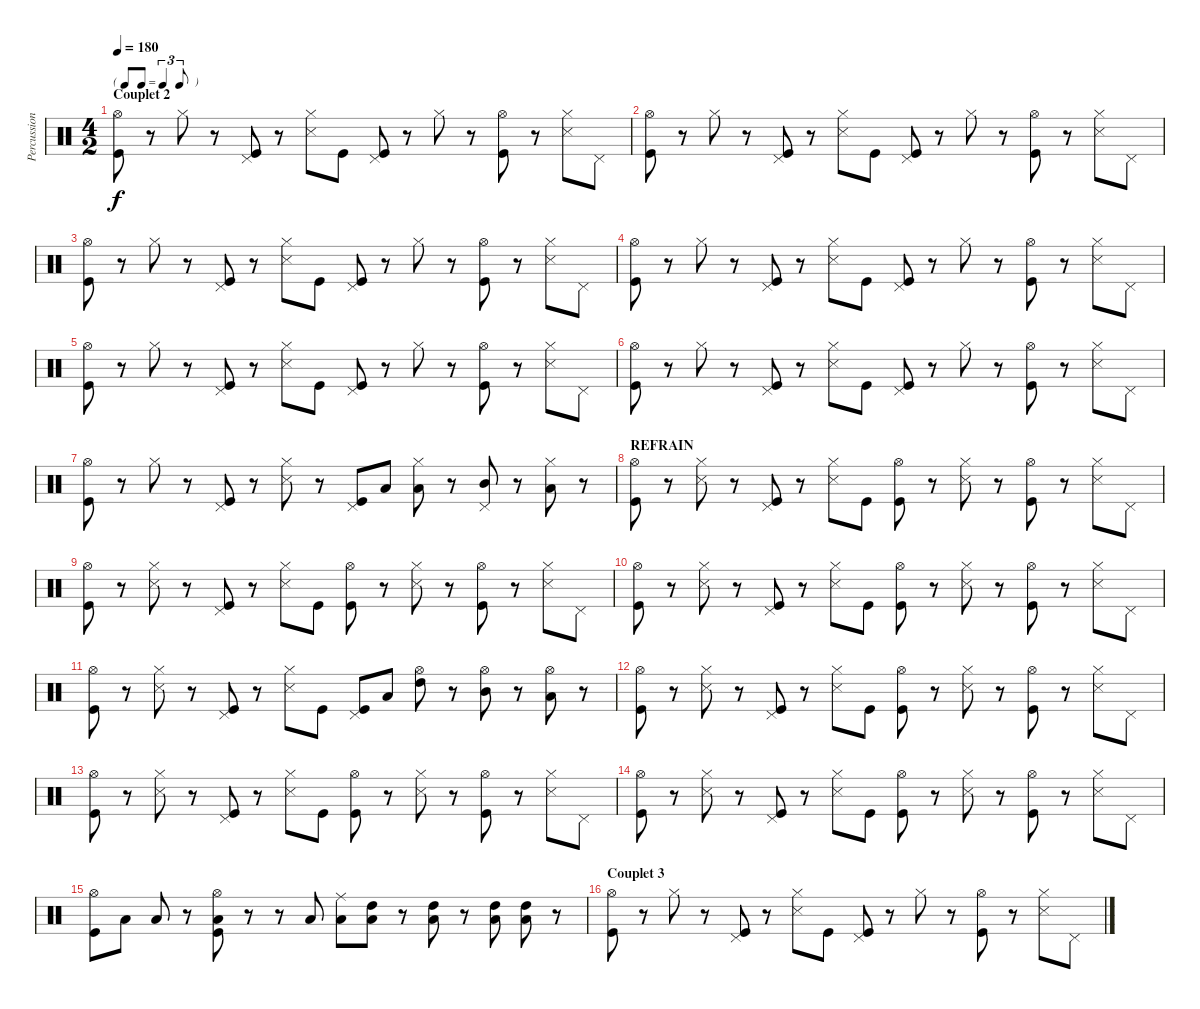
\track ("Percussion" "Percussion") {instrument percussion}
\staff {score}
\articulation defaults
\ts (4 2)
\tf triplet8th
\section ("" "Couplet 2")
\tempo 180
\clef neutral
\ks c
("Hi-Hat (open)" "Kick (hit)").8{dy f} r.8 "Hi-Hat (closed)".8 r.8 ("Pedal Hi-Hat (hit)" "Kick (hit)").8 r.8 ("Hi-Hat (closed)" "Snare (side stick) 3").8 "Kick (hit)".8 ("Pedal Hi-Hat (hit)" "Kick (hit)").8 r.8 "Hi-Hat (closed)".8 r.8 ("Hi-Hat (open)" "Kick (hit)").8 r.8 ("Hi-Hat (closed)" "Snare (side stick) 3").8 "Pedal Hi-Hat (hit)".8 |
("Hi-Hat (open)" "Kick (hit)").8 r.8 "Hi-Hat (closed)".8 r.8 ("Pedal Hi-Hat (hit)" "Kick (hit)").8 r.8 ("Hi-Hat (closed)" "Snare (side stick) 3").8 "Kick (hit)".8 ("Pedal Hi-Hat (hit)" "Kick (hit)").8 r.8 "Hi-Hat (closed)".8 r.8 ("Hi-Hat (open)" "Kick (hit)").8 r.8 ("Hi-Hat (closed)" "Snare (side stick) 3").8 "Pedal Hi-Hat (hit)".8 |
("Hi-Hat (open)" "Kick (hit)").8 r.8 "Hi-Hat (closed)".8 r.8 ("Pedal Hi-Hat (hit)" "Kick (hit)").8 r.8 ("Hi-Hat (closed)" "Snare (side stick) 3").8 "Kick (hit)".8 ("Pedal Hi-Hat (hit)" "Kick (hit)").8 r.8 "Hi-Hat (closed)".8 r.8 ("Hi-Hat (open)" "Kick (hit)").8 r.8 ("Hi-Hat (closed)" "Snare (side stick) 3").8 "Pedal Hi-Hat (hit)".8 |
("Hi-Hat (open)" "Kick (hit)").8 r.8 "Hi-Hat (closed)".8 r.8 ("Pedal Hi-Hat (hit)" "Kick (hit)").8 r.8 ("Hi-Hat (closed)" "Snare (side stick) 3").8 "Kick (hit)".8 ("Pedal Hi-Hat (hit)" "Kick (hit)").8 r.8 "Hi-Hat (closed)".8 r.8 ("Hi-Hat (open)" "Kick (hit)").8 r.8 ("Hi-Hat (closed)" "Snare (side stick) 3").8 "Pedal Hi-Hat (hit)".8 |
("Hi-Hat (open)" "Kick (hit)").8 r.8 "Hi-Hat (closed)".8 r.8 ("Pedal Hi-Hat (hit)" "Kick (hit)").8 r.8 ("Hi-Hat (closed)" "Snare (side stick) 3").8 "Kick (hit)".8 ("Pedal Hi-Hat (hit)" "Kick (hit)").8 r.8 "Hi-Hat (closed)".8 r.8 ("Hi-Hat (open)" "Kick (hit)").8 r.8 ("Hi-Hat (closed)" "Snare (side stick) 3").8 "Pedal Hi-Hat (hit)".8 |
("Hi-Hat (open)" "Kick (hit)").8 r.8 "Hi-Hat (closed)".8 r.8 ("Pedal Hi-Hat (hit)" "Kick (hit)").8 r.8 ("Hi-Hat (closed)" "Snare (side stick) 3").8 "Kick (hit)".8 ("Pedal Hi-Hat (hit)" "Kick (hit)").8 r.8 "Hi-Hat (closed)".8 r.8 ("Hi-Hat (open)" "Kick (hit)").8 r.8 ("Hi-Hat (closed)" "Snare (side stick) 3").8 "Pedal Hi-Hat (hit)".8 |
("Hi-Hat (open)" "Kick (hit)").8 r.8 "Hi-Hat (closed)".8 r.8 ("Pedal Hi-Hat (hit)" "Kick (hit)").8 r.8 ("Hi-Hat (closed)" "Snare (side stick) 3").8 r.8 ("Pedal Hi-Hat (hit)" "Kick (hit)").8 "Low Tom (hit)".8 ("Hi-Hat (closed)" "Low Tom (hit)").8 r.8 ("Pedal Hi-Hat (hit)" "Mid Tom (hit)").8 r.8 ("Hi-Hat (closed)" "Low Tom (hit)").8 r.8 |
\section ("" "REFRAIN")
("Hi-Hat (open)" "Kick (hit)").8 r.8 ("Hi-Hat (closed)" "Snare (side stick) 3").8 r.8 ("Pedal Hi-Hat (hit)" "Kick (hit)").8 r.8 ("Hi-Hat (closed)" "Snare (side stick) 3").8 "Kick (hit)".8 ("Hi-Hat (open)" "Kick (hit)").8 r.8 ("Hi-Hat (closed)" "Snare (side stick) 3").8 r.8 ("Hi-Hat (open)" "Kick (hit)").8 r.8 ("Hi-Hat (closed)" "Snare (side stick) 3").8 "Pedal Hi-Hat (hit)".8 |
("Hi-Hat (open)" "Kick (hit)").8 r.8 ("Hi-Hat (closed)" "Snare (side stick) 3").8 r.8 ("Pedal Hi-Hat (hit)" "Kick (hit)").8 r.8 ("Hi-Hat (closed)" "Snare (side stick) 3").8 "Kick (hit)".8 ("Hi-Hat (open)" "Kick (hit)").8 r.8 ("Hi-Hat (closed)" "Snare (side stick) 3").8 r.8 ("Hi-Hat (open)" "Kick (hit)").8 r.8 ("Hi-Hat (closed)" "Snare (side stick) 3").8 "Pedal Hi-Hat (hit)".8 |
("Hi-Hat (open)" "Kick (hit)").8 r.8 ("Hi-Hat (closed)" "Snare (side stick) 3").8 r.8 ("Pedal Hi-Hat (hit)" "Kick (hit)").8 r.8 ("Hi-Hat (closed)" "Snare (side stick) 3").8 "Kick (hit)".8 ("Hi-Hat (open)" "Kick (hit)").8 r.8 ("Hi-Hat (closed)" "Snare (side stick) 3").8 r.8 ("Hi-Hat (open)" "Kick (hit)").8 r.8 ("Hi-Hat (closed)" "Snare (side stick) 3").8 "Pedal Hi-Hat (hit)".8 |
("Hi-Hat (open)" "Kick (hit)").8 r.8 ("Hi-Hat (closed)" "Snare (side stick) 3").8 r.8 ("Pedal Hi-Hat (hit)" "Kick (hit)").8 r.8 ("Hi-Hat (closed)" "Snare (side stick) 3").8 "Kick (hit)".8 ("Pedal Hi-Hat (hit)" "Kick (hit)").8 "Low Tom (hit)".8 ("Hi-Hat (open)" "High Tom (hit)").8 r.8 ("Hi-Hat (open)" "Mid Tom (hit)").8 r.8 ("Hi-Hat (open)" "Low Tom (hit)").8 r.8 |
("Hi-Hat (open)" "Kick (hit)").8 r.8 ("Hi-Hat (closed)" "Snare (side stick) 3").8 r.8 ("Pedal Hi-Hat (hit)" "Kick (hit)").8 r.8 ("Hi-Hat (closed)" "Snare (side stick) 3").8 "Kick (hit)".8 ("Hi-Hat (open)" "Kick (hit)").8 r.8 ("Hi-Hat (closed)" "Snare (side stick) 3").8 r.8 ("Hi-Hat (open)" "Kick (hit)").8 r.8 ("Hi-Hat (closed)" "Snare (side stick) 3").8 "Pedal Hi-Hat (hit)".8 |
("Hi-Hat (open)" "Kick (hit)").8 r.8 ("Hi-Hat (closed)" "Snare (side stick) 3").8 r.8 ("Pedal Hi-Hat (hit)" "Kick (hit)").8 r.8 ("Hi-Hat (closed)" "Snare (side stick) 3").8 "Kick (hit)".8 ("Hi-Hat (open)" "Kick (hit)").8 r.8 ("Hi-Hat (closed)" "Snare (side stick) 3").8 r.8 ("Hi-Hat (open)" "Kick (hit)").8 r.8 ("Hi-Hat (closed)" "Snare (side stick) 3").8 "Pedal Hi-Hat (hit)".8 |
("Hi-Hat (open)" "Kick (hit)").8 r.8 ("Hi-Hat (closed)" "Snare (side stick) 3").8 r.8 ("Pedal Hi-Hat (hit)" "Kick (hit)").8 r.8 ("Hi-Hat (closed)" "Snare (side stick) 3").8 "Kick (hit)".8 ("Hi-Hat (open)" "Kick (hit)").8 r.8 ("Hi-Hat (closed)" "Snare (side stick) 3").8 r.8 ("Hi-Hat (open)" "Kick (hit)").8 r.8 ("Hi-Hat (closed)" "Snare (side stick) 3").8 "Pedal Hi-Hat (hit)".8 |
("Hi-Hat (open)" "Kick (hit)").8 "Low Tom (hit)".8 "Low Tom (hit)".8 r.8 ("Hi-Hat (open)" "Low Tom (hit)" "Kick (hit)").8 r.8 r.8 "Low Tom (hit)".8 ("Ride (middle)" "Low Tom (hit)").8 ("High Tom (hit)" "Low Tom (hit)").8 r.8 ("High Tom (hit)" "Low Tom (hit)").8 r.8 ("High Tom (hit)" "Low Tom (hit)").8 ("High Tom (hit)" "Low Tom (hit)").8 r.8 |
\section ("" "Couplet 3")
("Hi-Hat (open)" "Kick (hit)").8 r.8 "Hi-Hat (closed)".8 r.8 ("Pedal Hi-Hat (hit)" "Kick (hit)").8 r.8 ("Hi-Hat (closed)" "Snare (side stick) 3").8 "Kick (hit)".8 ("Pedal Hi-Hat (hit)" "Kick (hit)").8 r.8 "Hi-Hat (closed)".8 r.8 ("Hi-Hat (open)" "Kick (hit)").8 r.8 ("Hi-Hat (closed)" "Snare (side stick) 3").8 "Pedal Hi-Hat (hit)".8
